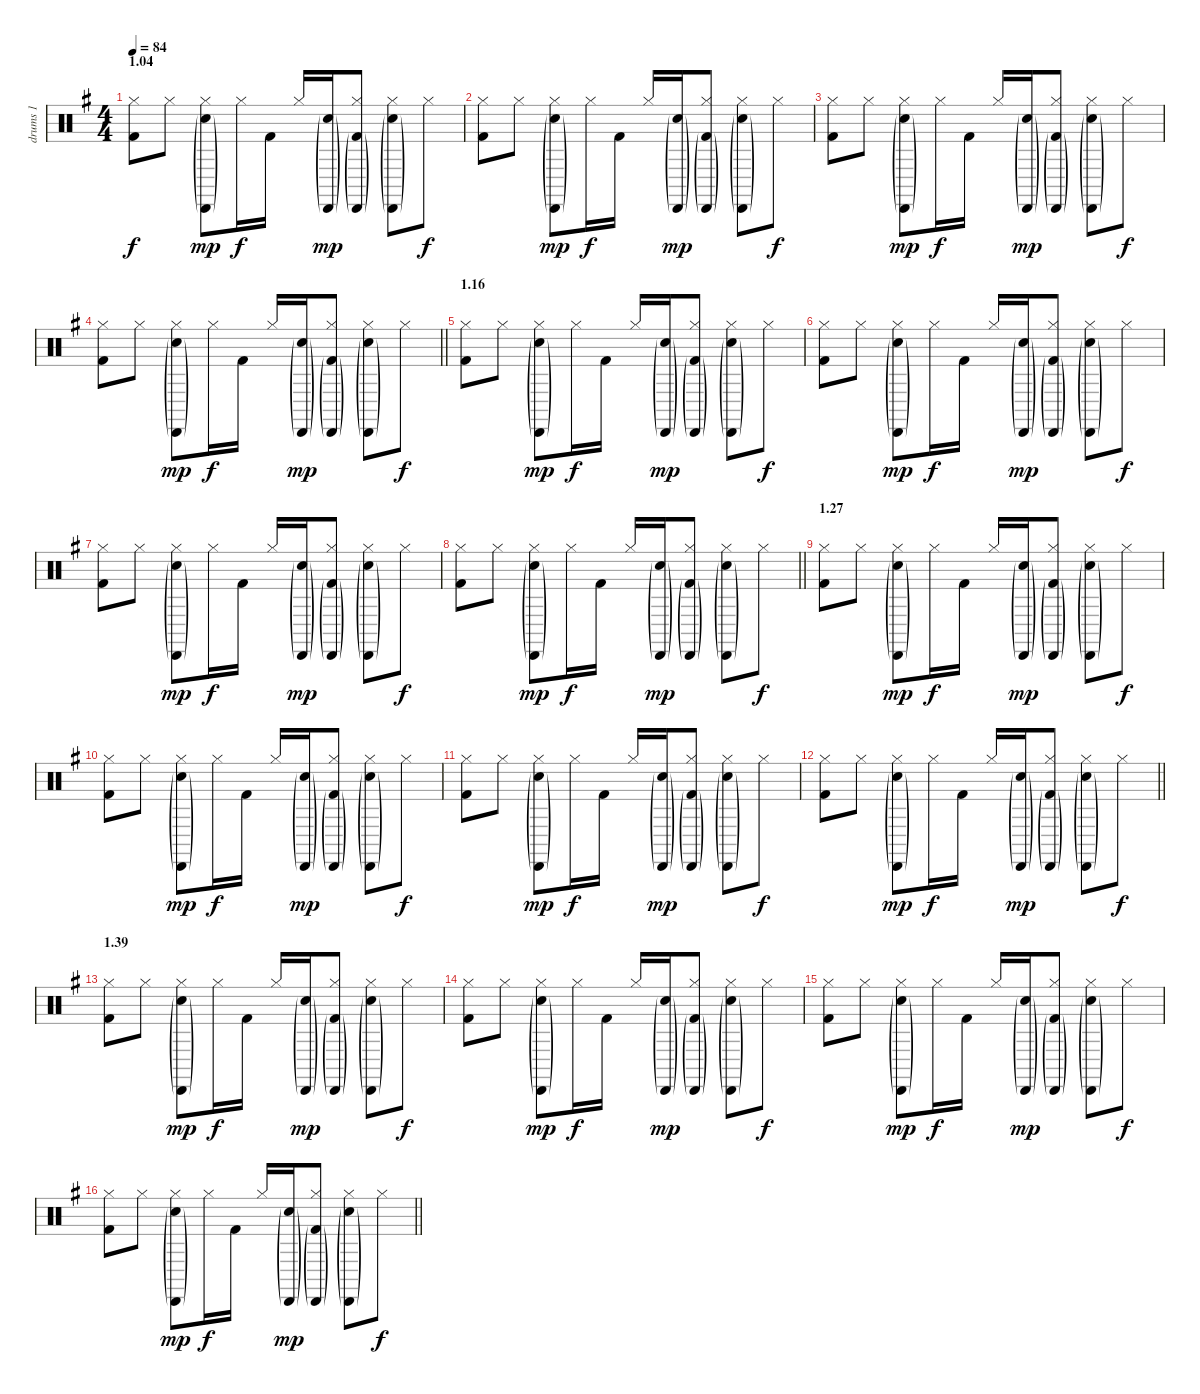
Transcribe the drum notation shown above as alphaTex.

\track ("drums 1" "drums 1") {instrument percussion}
\staff {score}
\articulation defaults
\ts (4 4)
\section ("" "1.04")
\tempo 84
\clef neutral
\ks g
("Hi-Hat (closed)" "Kick (hit) 2").8{dy f} "Hi-Hat (closed)".8 ("Cabasa (hit)"{g} "Hi-Hat (closed)" "Electric Snare (hit)"{g}).8{dy mp} "Hi-Hat (closed)".16{dy f} "Kick (hit) 2".16 "Hi-Hat (closed)".16 ("Cabasa (hit)"{g} "Electric Snare (hit)"{g}).16{dy mp} ("Cabasa (hit)"{g} "Hi-Hat (closed)" "Kick (hit) 2"{g}).8 ("Cabasa (hit)"{g} "Hi-Hat (closed)" "Electric Snare (hit)"{g}).8 "Hi-Hat (closed)".8{dy f} |
("Hi-Hat (closed)" "Kick (hit) 2").8 "Hi-Hat (closed)".8 ("Cabasa (hit)"{g} "Hi-Hat (closed)" "Electric Snare (hit)"{g}).8{dy mp} "Hi-Hat (closed)".16{dy f} "Kick (hit) 2".16 "Hi-Hat (closed)".16 ("Cabasa (hit)"{g} "Electric Snare (hit)"{g}).16{dy mp} ("Cabasa (hit)"{g} "Hi-Hat (closed)" "Kick (hit) 2"{g}).8 ("Cabasa (hit)"{g} "Hi-Hat (closed)" "Electric Snare (hit)"{g}).8 "Hi-Hat (closed)".8{dy f} |
("Hi-Hat (closed)" "Kick (hit) 2").8 "Hi-Hat (closed)".8 ("Cabasa (hit)"{g} "Hi-Hat (closed)" "Electric Snare (hit)"{g}).8{dy mp} "Hi-Hat (closed)".16{dy f} "Kick (hit) 2".16 "Hi-Hat (closed)".16 ("Cabasa (hit)"{g} "Electric Snare (hit)"{g}).16{dy mp} ("Cabasa (hit)"{g} "Hi-Hat (closed)" "Kick (hit) 2"{g}).8 ("Cabasa (hit)"{g} "Hi-Hat (closed)" "Electric Snare (hit)"{g}).8 "Hi-Hat (closed)".8{dy f} |
\barLineRight lightlight
("Hi-Hat (closed)" "Kick (hit) 2").8 "Hi-Hat (closed)".8 ("Cabasa (hit)"{g} "Hi-Hat (closed)" "Electric Snare (hit)"{g}).8{dy mp} "Hi-Hat (closed)".16{dy f} "Kick (hit) 2".16 "Hi-Hat (closed)".16 ("Cabasa (hit)"{g} "Electric Snare (hit)"{g}).16{dy mp} ("Cabasa (hit)"{g} "Hi-Hat (closed)" "Kick (hit) 2"{g}).8 ("Cabasa (hit)"{g} "Hi-Hat (closed)" "Electric Snare (hit)"{g}).8 "Hi-Hat (closed)".8{dy f} |
\section ("" "1.16")
("Hi-Hat (closed)" "Kick (hit) 2").8 "Hi-Hat (closed)".8 ("Cabasa (hit)"{g} "Hi-Hat (closed)" "Electric Snare (hit)"{g}).8{dy mp} "Hi-Hat (closed)".16{dy f} "Kick (hit) 2".16 "Hi-Hat (closed)".16 ("Cabasa (hit)"{g} "Electric Snare (hit)"{g}).16{dy mp} ("Cabasa (hit)"{g} "Hi-Hat (closed)" "Kick (hit) 2"{g}).8 ("Cabasa (hit)"{g} "Hi-Hat (closed)" "Electric Snare (hit)"{g}).8 "Hi-Hat (closed)".8{dy f} |
("Hi-Hat (closed)" "Kick (hit) 2").8 "Hi-Hat (closed)".8 ("Cabasa (hit)"{g} "Hi-Hat (closed)" "Electric Snare (hit)"{g}).8{dy mp} "Hi-Hat (closed)".16{dy f} "Kick (hit) 2".16 "Hi-Hat (closed)".16 ("Cabasa (hit)"{g} "Electric Snare (hit)"{g}).16{dy mp} ("Cabasa (hit)"{g} "Hi-Hat (closed)" "Kick (hit) 2"{g}).8 ("Cabasa (hit)"{g} "Hi-Hat (closed)" "Electric Snare (hit)"{g}).8 "Hi-Hat (closed)".8{dy f} |
("Hi-Hat (closed)" "Kick (hit) 2").8 "Hi-Hat (closed)".8 ("Cabasa (hit)"{g} "Hi-Hat (closed)" "Electric Snare (hit)"{g}).8{dy mp} "Hi-Hat (closed)".16{dy f} "Kick (hit) 2".16 "Hi-Hat (closed)".16 ("Cabasa (hit)"{g} "Electric Snare (hit)"{g}).16{dy mp} ("Cabasa (hit)"{g} "Hi-Hat (closed)" "Kick (hit) 2"{g}).8 ("Cabasa (hit)"{g} "Hi-Hat (closed)" "Electric Snare (hit)"{g}).8 "Hi-Hat (closed)".8{dy f} |
\barLineRight lightlight
("Hi-Hat (closed)" "Kick (hit) 2").8 "Hi-Hat (closed)".8 ("Cabasa (hit)"{g} "Hi-Hat (closed)" "Electric Snare (hit)"{g}).8{dy mp} "Hi-Hat (closed)".16{dy f} "Kick (hit) 2".16 "Hi-Hat (closed)".16 ("Cabasa (hit)"{g} "Electric Snare (hit)"{g}).16{dy mp} ("Cabasa (hit)"{g} "Hi-Hat (closed)" "Kick (hit) 2"{g}).8 ("Cabasa (hit)"{g} "Hi-Hat (closed)" "Electric Snare (hit)"{g}).8 "Hi-Hat (closed)".8{dy f} |
\section ("" "1.27")
("Hi-Hat (closed)" "Kick (hit) 2").8 "Hi-Hat (closed)".8 ("Cabasa (hit)"{g} "Hi-Hat (closed)" "Electric Snare (hit)"{g}).8{dy mp} "Hi-Hat (closed)".16{dy f} "Kick (hit) 2".16 "Hi-Hat (closed)".16 ("Cabasa (hit)"{g} "Electric Snare (hit)"{g}).16{dy mp} ("Cabasa (hit)"{g} "Hi-Hat (closed)" "Kick (hit) 2"{g}).8 ("Cabasa (hit)"{g} "Hi-Hat (closed)" "Electric Snare (hit)"{g}).8 "Hi-Hat (closed)".8{dy f} |
("Hi-Hat (closed)" "Kick (hit) 2").8 "Hi-Hat (closed)".8 ("Cabasa (hit)"{g} "Hi-Hat (closed)" "Electric Snare (hit)"{g}).8{dy mp} "Hi-Hat (closed)".16{dy f} "Kick (hit) 2".16 "Hi-Hat (closed)".16 ("Cabasa (hit)"{g} "Electric Snare (hit)"{g}).16{dy mp} ("Cabasa (hit)"{g} "Hi-Hat (closed)" "Kick (hit) 2"{g}).8 ("Cabasa (hit)"{g} "Hi-Hat (closed)" "Electric Snare (hit)"{g}).8 "Hi-Hat (closed)".8{dy f} |
("Hi-Hat (closed)" "Kick (hit) 2").8 "Hi-Hat (closed)".8 ("Cabasa (hit)"{g} "Hi-Hat (closed)" "Electric Snare (hit)"{g}).8{dy mp} "Hi-Hat (closed)".16{dy f} "Kick (hit) 2".16 "Hi-Hat (closed)".16 ("Cabasa (hit)"{g} "Electric Snare (hit)"{g}).16{dy mp} ("Cabasa (hit)"{g} "Hi-Hat (closed)" "Kick (hit) 2"{g}).8 ("Cabasa (hit)"{g} "Hi-Hat (closed)" "Electric Snare (hit)"{g}).8 "Hi-Hat (closed)".8{dy f} |
\barLineRight lightlight
("Hi-Hat (closed)" "Kick (hit) 2").8 "Hi-Hat (closed)".8 ("Cabasa (hit)"{g} "Hi-Hat (closed)" "Electric Snare (hit)"{g}).8{dy mp} "Hi-Hat (closed)".16{dy f} "Kick (hit) 2".16 "Hi-Hat (closed)".16 ("Cabasa (hit)"{g} "Electric Snare (hit)"{g}).16{dy mp} ("Cabasa (hit)"{g} "Hi-Hat (closed)" "Kick (hit) 2"{g}).8 ("Cabasa (hit)"{g} "Hi-Hat (closed)" "Electric Snare (hit)"{g}).8 "Hi-Hat (closed)".8{dy f} |
\section ("" "1.39")
("Hi-Hat (closed)" "Kick (hit) 2").8 "Hi-Hat (closed)".8 ("Cabasa (hit)"{g} "Hi-Hat (closed)" "Electric Snare (hit)"{g}).8{dy mp} "Hi-Hat (closed)".16{dy f} "Kick (hit) 2".16 "Hi-Hat (closed)".16 ("Cabasa (hit)"{g} "Electric Snare (hit)"{g}).16{dy mp} ("Cabasa (hit)"{g} "Hi-Hat (closed)" "Kick (hit) 2"{g}).8 ("Cabasa (hit)"{g} "Hi-Hat (closed)" "Electric Snare (hit)"{g}).8 "Hi-Hat (closed)".8{dy f} |
("Hi-Hat (closed)" "Kick (hit) 2").8 "Hi-Hat (closed)".8 ("Cabasa (hit)"{g} "Hi-Hat (closed)" "Electric Snare (hit)"{g}).8{dy mp} "Hi-Hat (closed)".16{dy f} "Kick (hit) 2".16 "Hi-Hat (closed)".16 ("Cabasa (hit)"{g} "Electric Snare (hit)"{g}).16{dy mp} ("Cabasa (hit)"{g} "Hi-Hat (closed)" "Kick (hit) 2"{g}).8 ("Cabasa (hit)"{g} "Hi-Hat (closed)" "Electric Snare (hit)"{g}).8 "Hi-Hat (closed)".8{dy f} |
("Hi-Hat (closed)" "Kick (hit) 2").8 "Hi-Hat (closed)".8 ("Cabasa (hit)"{g} "Hi-Hat (closed)" "Electric Snare (hit)"{g}).8{dy mp} "Hi-Hat (closed)".16{dy f} "Kick (hit) 2".16 "Hi-Hat (closed)".16 ("Cabasa (hit)"{g} "Electric Snare (hit)"{g}).16{dy mp} ("Cabasa (hit)"{g} "Hi-Hat (closed)" "Kick (hit) 2"{g}).8 ("Cabasa (hit)"{g} "Hi-Hat (closed)" "Electric Snare (hit)"{g}).8 "Hi-Hat (closed)".8{dy f} |
\barLineRight lightlight
("Hi-Hat (closed)" "Kick (hit) 2").8 "Hi-Hat (closed)".8 ("Cabasa (hit)"{g} "Hi-Hat (closed)" "Electric Snare (hit)"{g}).8{dy mp} "Hi-Hat (closed)".16{dy f} "Kick (hit) 2".16 "Hi-Hat (closed)".16 ("Cabasa (hit)"{g} "Electric Snare (hit)"{g}).16{dy mp} ("Cabasa (hit)"{g} "Hi-Hat (closed)" "Kick (hit) 2"{g}).8 ("Cabasa (hit)"{g} "Hi-Hat (closed)" "Electric Snare (hit)"{g}).8 "Hi-Hat (closed)".8{dy f}
